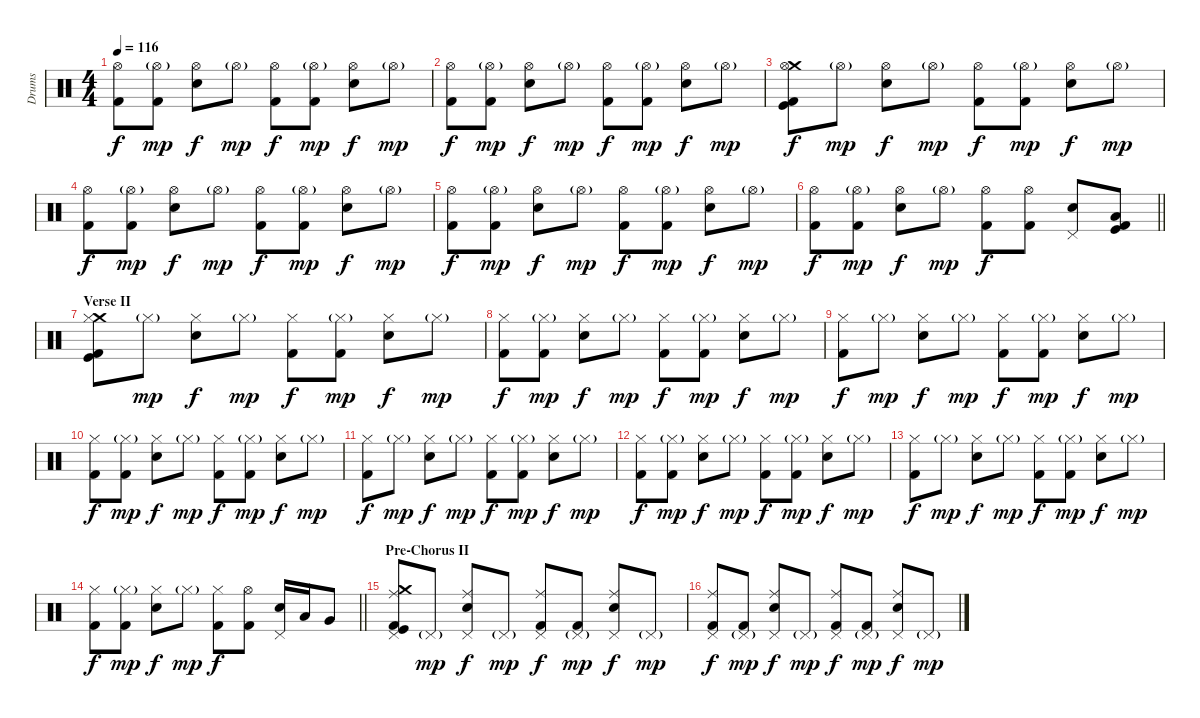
\track ("Drums" "Drums") {instrument percussion}
\staff {score}
\articulation defaults
\ts (4 4)
\tempo 116
\clef neutral
\ks c
("Hi-Hat (open)" "Kick (hit) 2").8{dy f} ("Hi-Hat (open)"{g} "Kick (hit) 2").8{dy mp} ("Hi-Hat (open)" "Electric Snare (hit)").8{dy f} "Hi-Hat (open)"{g}.8{dy mp} ("Hi-Hat (open)" "Kick (hit) 2").8{dy f} ("Hi-Hat (open)"{g} "Kick (hit) 2").8{dy mp} ("Hi-Hat (open)" "Electric Snare (hit)").8{dy f} "Hi-Hat (open)"{g}.8{dy mp} |
("Hi-Hat (open)" "Kick (hit) 2").8{dy f} ("Hi-Hat (open)"{g} "Kick (hit) 2").8{dy mp} ("Hi-Hat (open)" "Electric Snare (hit)").8{dy f} "Hi-Hat (open)"{g}.8{dy mp} ("Hi-Hat (open)" "Kick (hit) 2").8{dy f} ("Hi-Hat (open)"{g} "Kick (hit) 2").8{dy mp} ("Hi-Hat (open)" "Electric Snare (hit)").8{dy f} "Hi-Hat (open)"{g}.8{dy mp} |
("Crash medium (hit)" "Hi-Hat (open)" "Kick (hit)" "Kick (hit) 2").8{dy f} "Hi-Hat (open)"{g}.8{dy mp} ("Hi-Hat (open)" "Electric Snare (hit)").8{dy f} "Hi-Hat (open)"{g}.8{dy mp} ("Hi-Hat (open)" "Kick (hit) 2").8{dy f} ("Hi-Hat (open)"{g} "Kick (hit) 2").8{dy mp} ("Hi-Hat (open)" "Electric Snare (hit)").8{dy f} "Hi-Hat (open)"{g}.8{dy mp} |
("Hi-Hat (open)" "Kick (hit) 2").8{dy f} ("Hi-Hat (open)"{g} "Kick (hit) 2").8{dy mp} ("Hi-Hat (open)" "Electric Snare (hit)").8{dy f} "Hi-Hat (open)"{g}.8{dy mp} ("Hi-Hat (open)" "Kick (hit) 2").8{dy f} ("Hi-Hat (open)"{g} "Kick (hit) 2").8{dy mp} ("Hi-Hat (open)" "Electric Snare (hit)").8{dy f} "Hi-Hat (open)"{g}.8{dy mp} |
("Hi-Hat (open)" "Kick (hit) 2").8{dy f} ("Hi-Hat (open)"{g} "Kick (hit) 2").8{dy mp} ("Hi-Hat (open)" "Electric Snare (hit)").8{dy f} "Hi-Hat (open)"{g}.8{dy mp} ("Hi-Hat (open)" "Kick (hit) 2").8{dy f} ("Hi-Hat (open)"{g} "Kick (hit) 2").8{dy mp} ("Hi-Hat (open)" "Electric Snare (hit)").8{dy f} "Hi-Hat (open)"{g}.8{dy mp} |
\barLineRight lightlight
("Hi-Hat (open)" "Kick (hit) 2").8{dy f} ("Hi-Hat (open)"{g} "Kick (hit) 2").8{dy mp} ("Hi-Hat (open)" "Electric Snare (hit)").8{dy f} "Hi-Hat (open)"{g}.8{dy mp} ("Hi-Hat (open)" "Kick (hit) 2").8{dy f} ("Hi-Hat (open)" "Kick (hit) 2").8 ("Pedal Hi-Hat (hit)" "Electric Snare (hit)").8 ("Kick (hit) 2" "Kick (hit)" "Low Tom (hit)").8 |
\section ("" "Verse II")
("Crash medium (hit)" "Hi-Hat (closed)" "Kick (hit)" "Kick (hit) 2").8 "Hi-Hat (closed)"{g}.8{dy mp} ("Hi-Hat (closed)" "Electric Snare (hit)").8{dy f} "Hi-Hat (closed)"{g}.8{dy mp} ("Hi-Hat (closed)" "Kick (hit) 2").8{dy f} ("Hi-Hat (closed)"{g} "Kick (hit) 2").8{dy mp} ("Hi-Hat (closed)" "Electric Snare (hit)").8{dy f} "Hi-Hat (closed)"{g}.8{dy mp} |
("Hi-Hat (closed)" "Kick (hit) 2").8{dy f} ("Hi-Hat (closed)"{g} "Kick (hit) 2").8{dy mp} ("Hi-Hat (closed)" "Electric Snare (hit)").8{dy f} "Hi-Hat (closed)"{g}.8{dy mp} ("Hi-Hat (closed)" "Kick (hit) 2").8{dy f} ("Hi-Hat (closed)"{g} "Kick (hit) 2").8{dy mp} ("Hi-Hat (closed)" "Electric Snare (hit)").8{dy f} "Hi-Hat (closed)"{g}.8{dy mp} |
("Hi-Hat (closed)" "Kick (hit) 2").8{dy f} "Hi-Hat (closed)"{g}.8{dy mp} ("Hi-Hat (closed)" "Electric Snare (hit)").8{dy f} "Hi-Hat (closed)"{g}.8{dy mp} ("Hi-Hat (closed)" "Kick (hit) 2").8{dy f} ("Hi-Hat (closed)"{g} "Kick (hit) 2").8{dy mp} ("Hi-Hat (closed)" "Electric Snare (hit)").8{dy f} "Hi-Hat (closed)"{g}.8{dy mp} |
("Hi-Hat (closed)" "Kick (hit) 2").8{dy f} ("Hi-Hat (closed)"{g} "Kick (hit) 2").8{dy mp} ("Hi-Hat (closed)" "Electric Snare (hit)").8{dy f} "Hi-Hat (closed)"{g}.8{dy mp} ("Hi-Hat (closed)" "Kick (hit) 2").8{dy f} ("Hi-Hat (closed)"{g} "Kick (hit) 2").8{dy mp} ("Hi-Hat (closed)" "Electric Snare (hit)").8{dy f} "Hi-Hat (closed)"{g}.8{dy mp} |
("Hi-Hat (closed)" "Kick (hit) 2").8{dy f} "Hi-Hat (closed)"{g}.8{dy mp} ("Hi-Hat (closed)" "Electric Snare (hit)").8{dy f} "Hi-Hat (closed)"{g}.8{dy mp} ("Hi-Hat (closed)" "Kick (hit) 2").8{dy f} ("Hi-Hat (closed)"{g} "Kick (hit) 2").8{dy mp} ("Hi-Hat (closed)" "Electric Snare (hit)").8{dy f} "Hi-Hat (closed)"{g}.8{dy mp} |
("Hi-Hat (closed)" "Kick (hit) 2").8{dy f} ("Hi-Hat (closed)"{g} "Kick (hit) 2").8{dy mp} ("Hi-Hat (closed)" "Electric Snare (hit)").8{dy f} "Hi-Hat (closed)"{g}.8{dy mp} ("Hi-Hat (closed)" "Kick (hit) 2").8{dy f} ("Hi-Hat (closed)"{g} "Kick (hit) 2").8{dy mp} ("Hi-Hat (closed)" "Electric Snare (hit)").8{dy f} "Hi-Hat (closed)"{g}.8{dy mp} |
("Hi-Hat (closed)" "Kick (hit) 2").8{dy f} "Hi-Hat (closed)"{g}.8{dy mp} ("Hi-Hat (closed)" "Electric Snare (hit)").8{dy f} "Hi-Hat (closed)"{g}.8{dy mp} ("Hi-Hat (closed)" "Kick (hit) 2").8{dy f} ("Hi-Hat (closed)"{g} "Kick (hit) 2").8{dy mp} ("Hi-Hat (closed)" "Electric Snare (hit)").8{dy f} "Hi-Hat (closed)"{g}.8{dy mp} |
\barLineRight lightlight
("Hi-Hat (closed)" "Kick (hit) 2").8{dy f} ("Hi-Hat (closed)"{g} "Kick (hit) 2").8{dy mp} ("Hi-Hat (closed)" "Electric Snare (hit)").8{dy f} "Hi-Hat (closed)"{g}.8{dy mp} ("Hi-Hat (closed)" "Kick (hit) 2").8{dy f} ("Hi-Hat (open)" "Kick (hit) 2").8 ("Pedal Hi-Hat (hit)" "Electric Snare (hit)").16 "Low Tom (hit)".16 "Very Low Tom (hit)".8 |
\section ("" "Pre-Chorus II")
("Crash medium (hit)" "Pedal Hi-Hat (hit)" "Ride (middle)" "Kick (hit) 2" "Kick (hit)").8 "Pedal Hi-Hat (hit)"{g}.8{dy mp} ("Pedal Hi-Hat (hit)" "Ride (middle)" "Electric Snare (hit)").8{dy f} "Pedal Hi-Hat (hit)"{g}.8{dy mp} ("Pedal Hi-Hat (hit)" "Ride (middle)" "Kick (hit) 2").8{dy f} ("Pedal Hi-Hat (hit)"{g} "Kick (hit) 2").8{dy mp} ("Pedal Hi-Hat (hit)" "Ride (middle)" "Electric Snare (hit)").8{dy f} "Pedal Hi-Hat (hit)"{g}.8{dy mp} |
("Pedal Hi-Hat (hit)" "Ride (middle)" "Kick (hit) 2").8{dy f} ("Pedal Hi-Hat (hit)"{g} "Kick (hit) 2").8{dy mp} ("Pedal Hi-Hat (hit)" "Ride (middle)" "Electric Snare (hit)").8{dy f} "Pedal Hi-Hat (hit)"{g}.8{dy mp} ("Pedal Hi-Hat (hit)" "Ride (middle)" "Kick (hit) 2").8{dy f} ("Pedal Hi-Hat (hit)"{g} "Kick (hit) 2").8{dy mp} ("Pedal Hi-Hat (hit)" "Ride (middle)" "Electric Snare (hit)").8{dy f} "Pedal Hi-Hat (hit)"{g}.8{dy mp}
